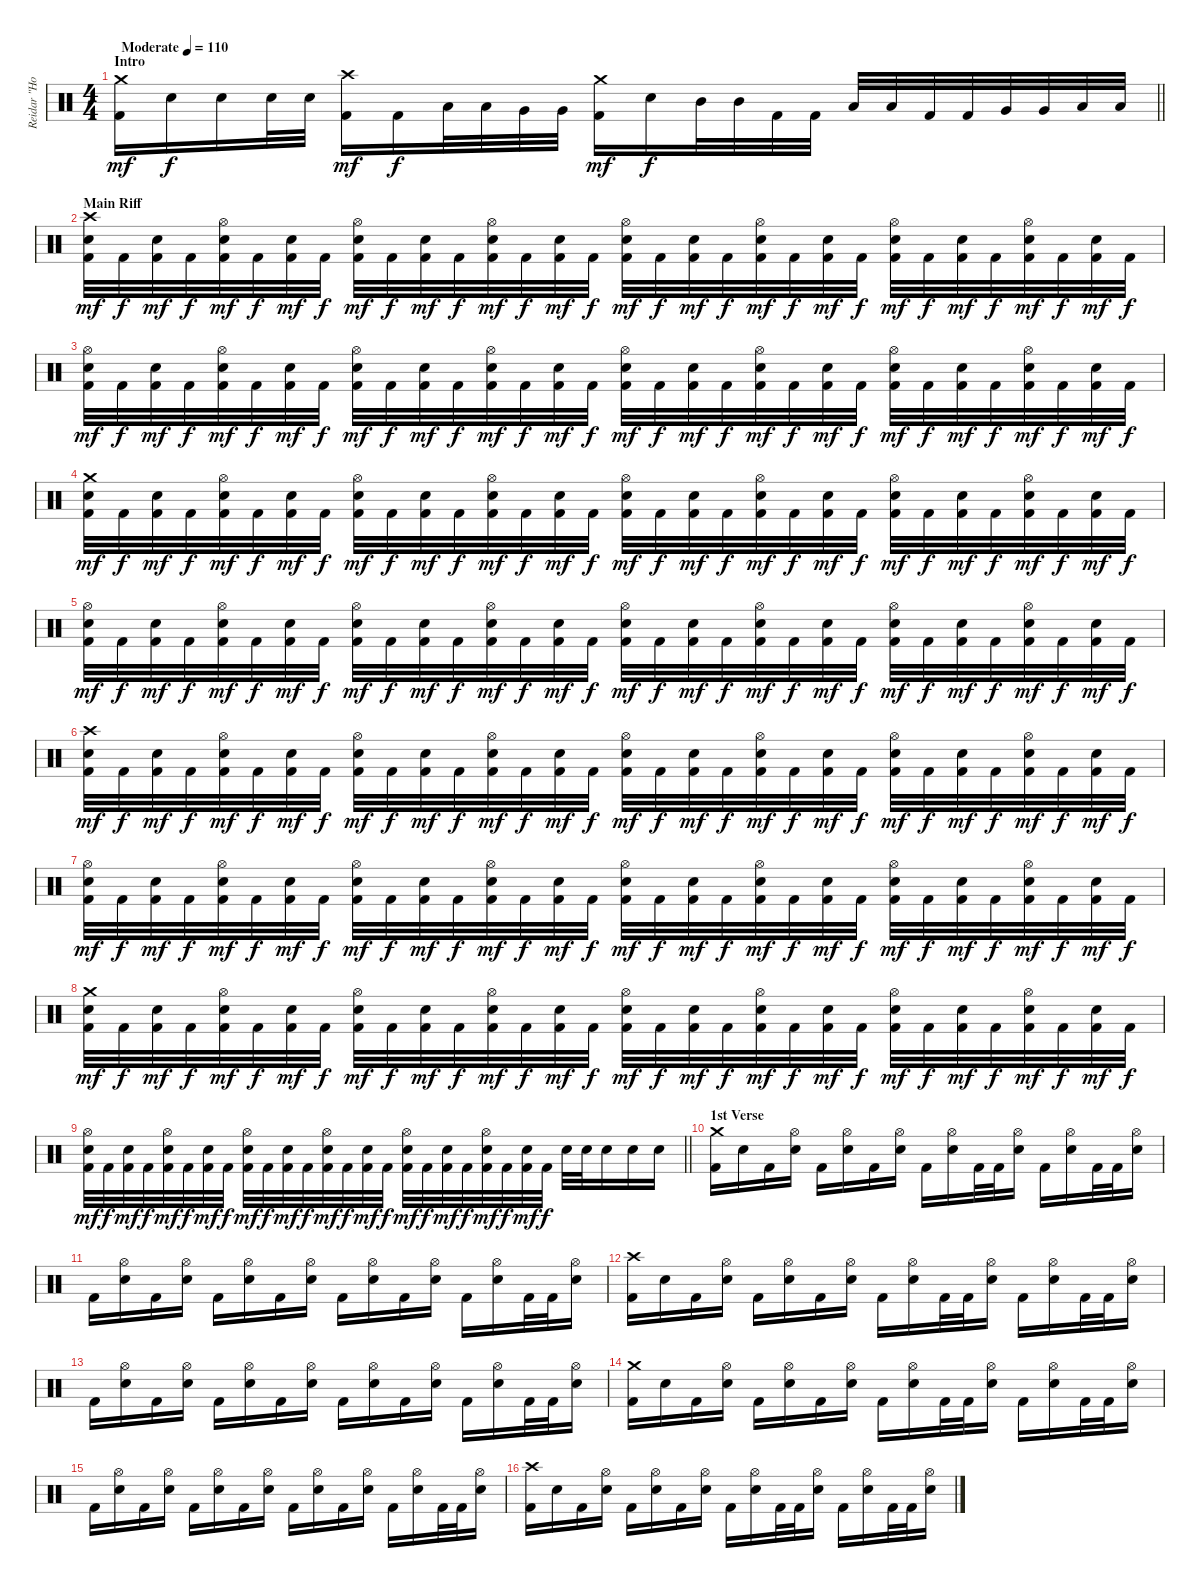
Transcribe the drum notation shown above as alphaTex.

\track ("Reidar \"Horgh\" Horghagen " "Reidar \"Ho") {instrument percussion}
\staff {score}
\articulation defaults
\ts (4 4)
\section ("" "Intro")
\tempo (110 "Moderate")
\clef neutral
\barLineRight lightlight
\ks c
("Crash medium (hit)" "Kick (hit) 2").16{dy mf} "Snare (hit) 2".16{dy f} "Snare (hit) 2".16 "Snare (hit) 2".32 "Snare (hit) 2".32 ("Crash high (hit)" "Kick (hit) 2").16{dy mf} "Kick (hit) 2".16{dy f} "Low Tom (hit)".32 "Low Tom (hit)".32 "Very Low Tom (hit)".32 "Very Low Tom (hit)".32 ("Crash medium (hit)" "Kick (hit) 2").16{dy mf} "Snare (hit) 2".16{dy f} "Mid Tom (hit)".32 "Mid Tom (hit)".32 "Kick (hit) 2".32 "Kick (hit) 2".32 "Low Tom (hit)".32 "Low Tom (hit)".32 "Kick (hit) 2".32 "Kick (hit) 2".32 "Very Low Tom (hit)".32 "Very Low Tom (hit)".32 "Low Floor Tom (hit)".32 "Low Floor Tom (hit)".32 |
\section ("" "Main Riff")
("Crash high (hit)" "Snare (hit) 2" "Kick (hit) 2").32{dy mf} "Kick (hit) 2".32{dy f} ("Snare (hit) 2" "Kick (hit) 2").32{dy mf} "Kick (hit) 2".32{dy f} ("Hi-Hat (open)" "Snare (hit) 2" "Kick (hit) 2").32{dy mf} "Kick (hit) 2".32{dy f} ("Snare (hit) 2" "Kick (hit) 2").32{dy mf} "Kick (hit) 2".32{dy f} ("Hi-Hat (open)" "Snare (hit) 2" "Kick (hit) 2").32{dy mf} "Kick (hit) 2".32{dy f} ("Snare (hit) 2" "Kick (hit) 2").32{dy mf} "Kick (hit) 2".32{dy f} ("Hi-Hat (open)" "Snare (hit) 2" "Kick (hit) 2").32{dy mf} "Kick (hit) 2".32{dy f} ("Snare (hit) 2" "Kick (hit) 2").32{dy mf} "Kick (hit) 2".32{dy f} ("Hi-Hat (open)" "Snare (hit) 2" "Kick (hit) 2").32{dy mf} "Kick (hit) 2".32{dy f} ("Snare (hit) 2" "Kick (hit) 2").32{dy mf} "Kick (hit) 2".32{dy f} ("Hi-Hat (open)" "Snare (hit) 2" "Kick (hit) 2").32{dy mf} "Kick (hit) 2".32{dy f} ("Snare (hit) 2" "Kick (hit) 2").32{dy mf} "Kick (hit) 2".32{dy f} ("Hi-Hat (open)" "Snare (hit) 2" "Kick (hit) 2").32{dy mf} "Kick (hit) 2".32{dy f} ("Snare (hit) 2" "Kick (hit) 2").32{dy mf} "Kick (hit) 2".32{dy f} ("Hi-Hat (open)" "Snare (hit) 2" "Kick (hit) 2").32{dy mf} "Kick (hit) 2".32{dy f} ("Snare (hit) 2" "Kick (hit) 2").32{dy mf} "Kick (hit) 2".32{dy f} |
("Hi-Hat (open)" "Snare (hit) 2" "Kick (hit) 2").32{dy mf} "Kick (hit) 2".32{dy f} ("Snare (hit) 2" "Kick (hit) 2").32{dy mf} "Kick (hit) 2".32{dy f} ("Hi-Hat (open)" "Snare (hit) 2" "Kick (hit) 2").32{dy mf} "Kick (hit) 2".32{dy f} ("Snare (hit) 2" "Kick (hit) 2").32{dy mf} "Kick (hit) 2".32{dy f} ("Hi-Hat (open)" "Snare (hit) 2" "Kick (hit) 2").32{dy mf} "Kick (hit) 2".32{dy f} ("Snare (hit) 2" "Kick (hit) 2").32{dy mf} "Kick (hit) 2".32{dy f} ("Hi-Hat (open)" "Snare (hit) 2" "Kick (hit) 2").32{dy mf} "Kick (hit) 2".32{dy f} ("Snare (hit) 2" "Kick (hit) 2").32{dy mf} "Kick (hit) 2".32{dy f} ("Hi-Hat (open)" "Snare (hit) 2" "Kick (hit) 2").32{dy mf} "Kick (hit) 2".32{dy f} ("Snare (hit) 2" "Kick (hit) 2").32{dy mf} "Kick (hit) 2".32{dy f} ("Hi-Hat (open)" "Snare (hit) 2" "Kick (hit) 2").32{dy mf} "Kick (hit) 2".32{dy f} ("Snare (hit) 2" "Kick (hit) 2").32{dy mf} "Kick (hit) 2".32{dy f} ("Hi-Hat (open)" "Snare (hit) 2" "Kick (hit) 2").32{dy mf} "Kick (hit) 2".32{dy f} ("Snare (hit) 2" "Kick (hit) 2").32{dy mf} "Kick (hit) 2".32{dy f} ("Hi-Hat (open)" "Snare (hit) 2" "Kick (hit) 2").32{dy mf} "Kick (hit) 2".32{dy f} ("Snare (hit) 2" "Kick (hit) 2").32{dy mf} "Kick (hit) 2".32{dy f} |
("Crash medium (hit)" "Snare (hit) 2" "Kick (hit) 2").32{dy mf} "Kick (hit) 2".32{dy f} ("Snare (hit) 2" "Kick (hit) 2").32{dy mf} "Kick (hit) 2".32{dy f} ("Hi-Hat (open)" "Snare (hit) 2" "Kick (hit) 2").32{dy mf} "Kick (hit) 2".32{dy f} ("Snare (hit) 2" "Kick (hit) 2").32{dy mf} "Kick (hit) 2".32{dy f} ("Hi-Hat (open)" "Snare (hit) 2" "Kick (hit) 2").32{dy mf} "Kick (hit) 2".32{dy f} ("Snare (hit) 2" "Kick (hit) 2").32{dy mf} "Kick (hit) 2".32{dy f} ("Hi-Hat (open)" "Snare (hit) 2" "Kick (hit) 2").32{dy mf} "Kick (hit) 2".32{dy f} ("Snare (hit) 2" "Kick (hit) 2").32{dy mf} "Kick (hit) 2".32{dy f} ("Hi-Hat (open)" "Snare (hit) 2" "Kick (hit) 2").32{dy mf} "Kick (hit) 2".32{dy f} ("Snare (hit) 2" "Kick (hit) 2").32{dy mf} "Kick (hit) 2".32{dy f} ("Hi-Hat (open)" "Snare (hit) 2" "Kick (hit) 2").32{dy mf} "Kick (hit) 2".32{dy f} ("Snare (hit) 2" "Kick (hit) 2").32{dy mf} "Kick (hit) 2".32{dy f} ("Hi-Hat (open)" "Snare (hit) 2" "Kick (hit) 2").32{dy mf} "Kick (hit) 2".32{dy f} ("Snare (hit) 2" "Kick (hit) 2").32{dy mf} "Kick (hit) 2".32{dy f} ("Hi-Hat (open)" "Snare (hit) 2" "Kick (hit) 2").32{dy mf} "Kick (hit) 2".32{dy f} ("Snare (hit) 2" "Kick (hit) 2").32{dy mf} "Kick (hit) 2".32{dy f} |
("Hi-Hat (open)" "Snare (hit) 2" "Kick (hit) 2").32{dy mf} "Kick (hit) 2".32{dy f} ("Snare (hit) 2" "Kick (hit) 2").32{dy mf} "Kick (hit) 2".32{dy f} ("Hi-Hat (open)" "Snare (hit) 2" "Kick (hit) 2").32{dy mf} "Kick (hit) 2".32{dy f} ("Snare (hit) 2" "Kick (hit) 2").32{dy mf} "Kick (hit) 2".32{dy f} ("Hi-Hat (open)" "Snare (hit) 2" "Kick (hit) 2").32{dy mf} "Kick (hit) 2".32{dy f} ("Snare (hit) 2" "Kick (hit) 2").32{dy mf} "Kick (hit) 2".32{dy f} ("Hi-Hat (open)" "Snare (hit) 2" "Kick (hit) 2").32{dy mf} "Kick (hit) 2".32{dy f} ("Snare (hit) 2" "Kick (hit) 2").32{dy mf} "Kick (hit) 2".32{dy f} ("Hi-Hat (open)" "Snare (hit) 2" "Kick (hit) 2").32{dy mf} "Kick (hit) 2".32{dy f} ("Snare (hit) 2" "Kick (hit) 2").32{dy mf} "Kick (hit) 2".32{dy f} ("Hi-Hat (open)" "Snare (hit) 2" "Kick (hit) 2").32{dy mf} "Kick (hit) 2".32{dy f} ("Snare (hit) 2" "Kick (hit) 2").32{dy mf} "Kick (hit) 2".32{dy f} ("Hi-Hat (open)" "Snare (hit) 2" "Kick (hit) 2").32{dy mf} "Kick (hit) 2".32{dy f} ("Snare (hit) 2" "Kick (hit) 2").32{dy mf} "Kick (hit) 2".32{dy f} ("Hi-Hat (open)" "Snare (hit) 2" "Kick (hit) 2").32{dy mf} "Kick (hit) 2".32{dy f} ("Snare (hit) 2" "Kick (hit) 2").32{dy mf} "Kick (hit) 2".32{dy f} |
("Crash high (hit)" "Snare (hit) 2" "Kick (hit) 2").32{dy mf} "Kick (hit) 2".32{dy f} ("Snare (hit) 2" "Kick (hit) 2").32{dy mf} "Kick (hit) 2".32{dy f} ("Hi-Hat (open)" "Snare (hit) 2" "Kick (hit) 2").32{dy mf} "Kick (hit) 2".32{dy f} ("Snare (hit) 2" "Kick (hit) 2").32{dy mf} "Kick (hit) 2".32{dy f} ("Hi-Hat (open)" "Snare (hit) 2" "Kick (hit) 2").32{dy mf} "Kick (hit) 2".32{dy f} ("Snare (hit) 2" "Kick (hit) 2").32{dy mf} "Kick (hit) 2".32{dy f} ("Hi-Hat (open)" "Snare (hit) 2" "Kick (hit) 2").32{dy mf} "Kick (hit) 2".32{dy f} ("Snare (hit) 2" "Kick (hit) 2").32{dy mf} "Kick (hit) 2".32{dy f} ("Hi-Hat (open)" "Snare (hit) 2" "Kick (hit) 2").32{dy mf} "Kick (hit) 2".32{dy f} ("Snare (hit) 2" "Kick (hit) 2").32{dy mf} "Kick (hit) 2".32{dy f} ("Hi-Hat (open)" "Snare (hit) 2" "Kick (hit) 2").32{dy mf} "Kick (hit) 2".32{dy f} ("Snare (hit) 2" "Kick (hit) 2").32{dy mf} "Kick (hit) 2".32{dy f} ("Hi-Hat (open)" "Snare (hit) 2" "Kick (hit) 2").32{dy mf} "Kick (hit) 2".32{dy f} ("Snare (hit) 2" "Kick (hit) 2").32{dy mf} "Kick (hit) 2".32{dy f} ("Hi-Hat (open)" "Snare (hit) 2" "Kick (hit) 2").32{dy mf} "Kick (hit) 2".32{dy f} ("Snare (hit) 2" "Kick (hit) 2").32{dy mf} "Kick (hit) 2".32{dy f} |
("Hi-Hat (open)" "Snare (hit) 2" "Kick (hit) 2").32{dy mf} "Kick (hit) 2".32{dy f} ("Snare (hit) 2" "Kick (hit) 2").32{dy mf} "Kick (hit) 2".32{dy f} ("Hi-Hat (open)" "Snare (hit) 2" "Kick (hit) 2").32{dy mf} "Kick (hit) 2".32{dy f} ("Snare (hit) 2" "Kick (hit) 2").32{dy mf} "Kick (hit) 2".32{dy f} ("Hi-Hat (open)" "Snare (hit) 2" "Kick (hit) 2").32{dy mf} "Kick (hit) 2".32{dy f} ("Snare (hit) 2" "Kick (hit) 2").32{dy mf} "Kick (hit) 2".32{dy f} ("Hi-Hat (open)" "Snare (hit) 2" "Kick (hit) 2").32{dy mf} "Kick (hit) 2".32{dy f} ("Snare (hit) 2" "Kick (hit) 2").32{dy mf} "Kick (hit) 2".32{dy f} ("Hi-Hat (open)" "Snare (hit) 2" "Kick (hit) 2").32{dy mf} "Kick (hit) 2".32{dy f} ("Snare (hit) 2" "Kick (hit) 2").32{dy mf} "Kick (hit) 2".32{dy f} ("Hi-Hat (open)" "Snare (hit) 2" "Kick (hit) 2").32{dy mf} "Kick (hit) 2".32{dy f} ("Snare (hit) 2" "Kick (hit) 2").32{dy mf} "Kick (hit) 2".32{dy f} ("Hi-Hat (open)" "Snare (hit) 2" "Kick (hit) 2").32{dy mf} "Kick (hit) 2".32{dy f} ("Snare (hit) 2" "Kick (hit) 2").32{dy mf} "Kick (hit) 2".32{dy f} ("Hi-Hat (open)" "Snare (hit) 2" "Kick (hit) 2").32{dy mf} "Kick (hit) 2".32{dy f} ("Snare (hit) 2" "Kick (hit) 2").32{dy mf} "Kick (hit) 2".32{dy f} |
("Crash medium (hit)" "Snare (hit) 2" "Kick (hit) 2").32{dy mf} "Kick (hit) 2".32{dy f} ("Snare (hit) 2" "Kick (hit) 2").32{dy mf} "Kick (hit) 2".32{dy f} ("Hi-Hat (open)" "Snare (hit) 2" "Kick (hit) 2").32{dy mf} "Kick (hit) 2".32{dy f} ("Snare (hit) 2" "Kick (hit) 2").32{dy mf} "Kick (hit) 2".32{dy f} ("Hi-Hat (open)" "Snare (hit) 2" "Kick (hit) 2").32{dy mf} "Kick (hit) 2".32{dy f} ("Snare (hit) 2" "Kick (hit) 2").32{dy mf} "Kick (hit) 2".32{dy f} ("Hi-Hat (open)" "Snare (hit) 2" "Kick (hit) 2").32{dy mf} "Kick (hit) 2".32{dy f} ("Snare (hit) 2" "Kick (hit) 2").32{dy mf} "Kick (hit) 2".32{dy f} ("Hi-Hat (open)" "Snare (hit) 2" "Kick (hit) 2").32{dy mf} "Kick (hit) 2".32{dy f} ("Snare (hit) 2" "Kick (hit) 2").32{dy mf} "Kick (hit) 2".32{dy f} ("Hi-Hat (open)" "Snare (hit) 2" "Kick (hit) 2").32{dy mf} "Kick (hit) 2".32{dy f} ("Snare (hit) 2" "Kick (hit) 2").32{dy mf} "Kick (hit) 2".32{dy f} ("Hi-Hat (open)" "Snare (hit) 2" "Kick (hit) 2").32{dy mf} "Kick (hit) 2".32{dy f} ("Snare (hit) 2" "Kick (hit) 2").32{dy mf} "Kick (hit) 2".32{dy f} ("Hi-Hat (open)" "Snare (hit) 2" "Kick (hit) 2").32{dy mf} "Kick (hit) 2".32{dy f} ("Snare (hit) 2" "Kick (hit) 2").32{dy mf} "Kick (hit) 2".32{dy f} |
\barLineRight lightlight
("Hi-Hat (open)" "Snare (hit) 2" "Kick (hit) 2").32{dy mf} "Kick (hit) 2".32{dy f} ("Snare (hit) 2" "Kick (hit) 2").32{dy mf} "Kick (hit) 2".32{dy f} ("Hi-Hat (open)" "Snare (hit) 2" "Kick (hit) 2").32{dy mf} "Kick (hit) 2".32{dy f} ("Snare (hit) 2" "Kick (hit) 2").32{dy mf} "Kick (hit) 2".32{dy f} ("Hi-Hat (open)" "Snare (hit) 2" "Kick (hit) 2").32{dy mf} "Kick (hit) 2".32{dy f} ("Snare (hit) 2" "Kick (hit) 2").32{dy mf} "Kick (hit) 2".32{dy f} ("Hi-Hat (open)" "Snare (hit) 2" "Kick (hit) 2").32{dy mf} "Kick (hit) 2".32{dy f} ("Snare (hit) 2" "Kick (hit) 2").32{dy mf} "Kick (hit) 2".32{dy f} ("Hi-Hat (open)" "Snare (hit) 2" "Kick (hit) 2").32{dy mf} "Kick (hit) 2".32{dy f} ("Snare (hit) 2" "Kick (hit) 2").32{dy mf} "Kick (hit) 2".32{dy f} ("Hi-Hat (open)" "Snare (hit) 2" "Kick (hit) 2").32{dy mf} "Kick (hit) 2".32{dy f} ("Snare (hit) 2" "Kick (hit) 2").32{dy mf} "Kick (hit) 2".32{dy f} "Snare (hit) 2".32 "Snare (hit) 2".32 "Snare (hit) 2".16 "Snare (hit) 2".16 "Snare (hit) 2".16 |
\section ("" "1st Verse")
("Crash medium (hit)" "Kick (hit) 2").16 "Snare (hit) 2".16 "Kick (hit) 2".16 ("Hi-Hat (open)" "Snare (hit) 2").16 "Kick (hit) 2".16 ("Hi-Hat (open)" "Snare (hit) 2").16 "Kick (hit) 2".16 ("Hi-Hat (open)" "Snare (hit) 2").16 "Kick (hit) 2".16 ("Hi-Hat (open)" "Snare (hit) 2").16 "Kick (hit) 2".32 "Kick (hit) 2".32 ("Hi-Hat (open)" "Snare (hit) 2").16 "Kick (hit) 2".16 ("Hi-Hat (open)" "Snare (hit) 2").16 "Kick (hit) 2".32 "Kick (hit) 2".32 ("Hi-Hat (open)" "Snare (hit) 2").16 |
"Kick (hit) 2".16 ("Hi-Hat (open)" "Snare (hit) 2").16 "Kick (hit) 2".16 ("Hi-Hat (open)" "Snare (hit) 2").16 "Kick (hit) 2".16 ("Hi-Hat (open)" "Snare (hit) 2").16 "Kick (hit) 2".16 ("Hi-Hat (open)" "Snare (hit) 2").16 "Kick (hit) 2".16 ("Hi-Hat (open)" "Snare (hit) 2").16 "Kick (hit) 2".16 ("Hi-Hat (open)" "Snare (hit) 2").16 "Kick (hit) 2".16 ("Hi-Hat (open)" "Snare (hit) 2").16 "Kick (hit) 2".32 "Kick (hit) 2".32 ("Hi-Hat (open)" "Snare (hit) 2").16 |
("Crash high (hit)" "Kick (hit) 2").16 "Snare (hit) 2".16 "Kick (hit) 2".16 ("Hi-Hat (open)" "Snare (hit) 2").16 "Kick (hit) 2".16 ("Hi-Hat (open)" "Snare (hit) 2").16 "Kick (hit) 2".16 ("Hi-Hat (open)" "Snare (hit) 2").16 "Kick (hit) 2".16 ("Hi-Hat (open)" "Snare (hit) 2").16 "Kick (hit) 2".32 "Kick (hit) 2".32 ("Hi-Hat (open)" "Snare (hit) 2").16 "Kick (hit) 2".16 ("Hi-Hat (open)" "Snare (hit) 2").16 "Kick (hit) 2".32 "Kick (hit) 2".32 ("Hi-Hat (open)" "Snare (hit) 2").16 |
"Kick (hit) 2".16 ("Hi-Hat (open)" "Snare (hit) 2").16 "Kick (hit) 2".16 ("Hi-Hat (open)" "Snare (hit) 2").16 "Kick (hit) 2".16 ("Hi-Hat (open)" "Snare (hit) 2").16 "Kick (hit) 2".16 ("Hi-Hat (open)" "Snare (hit) 2").16 "Kick (hit) 2".16 ("Hi-Hat (open)" "Snare (hit) 2").16 "Kick (hit) 2".16 ("Hi-Hat (open)" "Snare (hit) 2").16 "Kick (hit) 2".16 ("Hi-Hat (open)" "Snare (hit) 2").16 "Kick (hit) 2".32 "Kick (hit) 2".32 ("Hi-Hat (open)" "Snare (hit) 2").16 |
("Crash medium (hit)" "Kick (hit) 2").16 "Snare (hit) 2".16 "Kick (hit) 2".16 ("Hi-Hat (open)" "Snare (hit) 2").16 "Kick (hit) 2".16 ("Hi-Hat (open)" "Snare (hit) 2").16 "Kick (hit) 2".16 ("Hi-Hat (open)" "Snare (hit) 2").16 "Kick (hit) 2".16 ("Hi-Hat (open)" "Snare (hit) 2").16 "Kick (hit) 2".32 "Kick (hit) 2".32 ("Hi-Hat (open)" "Snare (hit) 2").16 "Kick (hit) 2".16 ("Hi-Hat (open)" "Snare (hit) 2").16 "Kick (hit) 2".32 "Kick (hit) 2".32 ("Hi-Hat (open)" "Snare (hit) 2").16 |
"Kick (hit) 2".16 ("Hi-Hat (open)" "Snare (hit) 2").16 "Kick (hit) 2".16 ("Hi-Hat (open)" "Snare (hit) 2").16 "Kick (hit) 2".16 ("Hi-Hat (open)" "Snare (hit) 2").16 "Kick (hit) 2".16 ("Hi-Hat (open)" "Snare (hit) 2").16 "Kick (hit) 2".16 ("Hi-Hat (open)" "Snare (hit) 2").16 "Kick (hit) 2".16 ("Hi-Hat (open)" "Snare (hit) 2").16 "Kick (hit) 2".16 ("Hi-Hat (open)" "Snare (hit) 2").16 "Kick (hit) 2".32 "Kick (hit) 2".32 ("Hi-Hat (open)" "Snare (hit) 2").16 |
("Crash high (hit)" "Kick (hit) 2").16 "Snare (hit) 2".16 "Kick (hit) 2".16 ("Hi-Hat (open)" "Snare (hit) 2").16 "Kick (hit) 2".16 ("Hi-Hat (open)" "Snare (hit) 2").16 "Kick (hit) 2".16 ("Hi-Hat (open)" "Snare (hit) 2").16 "Kick (hit) 2".16 ("Hi-Hat (open)" "Snare (hit) 2").16 "Kick (hit) 2".32 "Kick (hit) 2".32 ("Hi-Hat (open)" "Snare (hit) 2").16 "Kick (hit) 2".16 ("Hi-Hat (open)" "Snare (hit) 2").16 "Kick (hit) 2".32 "Kick (hit) 2".32 ("Hi-Hat (open)" "Snare (hit) 2").16
